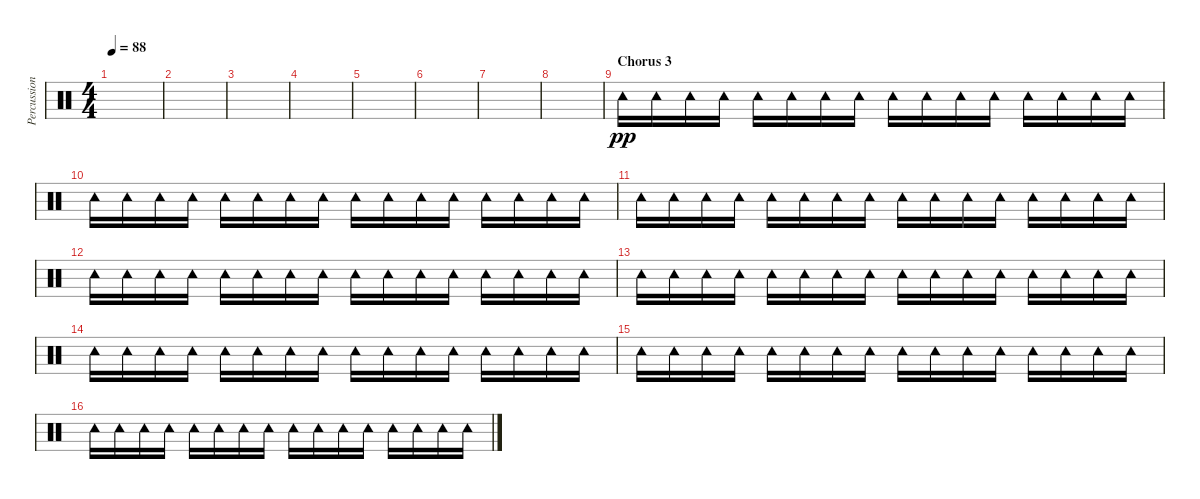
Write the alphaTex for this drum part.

\track ("Percussion" "Percussion") {instrument percussion}
\staff {score}
\articulation defaults
\ts (4 4)
\tempo 88
\clef neutral
\ks c
|
|
|
|
|
|
|
|
\section ("" "Chorus 3")
"Tambourine (hit)".16{dy pp} "Tambourine (hit)".16 "Tambourine (hit)".16 "Tambourine (hit)".16 "Tambourine (hit)".16 "Tambourine (hit)".16 "Tambourine (hit)".16 "Tambourine (hit)".16 "Tambourine (hit)".16 "Tambourine (hit)".16 "Tambourine (hit)".16 "Tambourine (hit)".16 "Tambourine (hit)".16 "Tambourine (hit)".16 "Tambourine (hit)".16 "Tambourine (hit)".16 |
"Tambourine (hit)".16 "Tambourine (hit)".16 "Tambourine (hit)".16 "Tambourine (hit)".16 "Tambourine (hit)".16 "Tambourine (hit)".16 "Tambourine (hit)".16 "Tambourine (hit)".16 "Tambourine (hit)".16 "Tambourine (hit)".16 "Tambourine (hit)".16 "Tambourine (hit)".16 "Tambourine (hit)".16 "Tambourine (hit)".16 "Tambourine (hit)".16 "Tambourine (hit)".16 |
"Tambourine (hit)".16 "Tambourine (hit)".16 "Tambourine (hit)".16 "Tambourine (hit)".16 "Tambourine (hit)".16 "Tambourine (hit)".16 "Tambourine (hit)".16 "Tambourine (hit)".16 "Tambourine (hit)".16 "Tambourine (hit)".16 "Tambourine (hit)".16 "Tambourine (hit)".16 "Tambourine (hit)".16 "Tambourine (hit)".16 "Tambourine (hit)".16 "Tambourine (hit)".16 |
"Tambourine (hit)".16 "Tambourine (hit)".16 "Tambourine (hit)".16 "Tambourine (hit)".16 "Tambourine (hit)".16 "Tambourine (hit)".16 "Tambourine (hit)".16 "Tambourine (hit)".16 "Tambourine (hit)".16 "Tambourine (hit)".16 "Tambourine (hit)".16 "Tambourine (hit)".16 "Tambourine (hit)".16 "Tambourine (hit)".16 "Tambourine (hit)".16 "Tambourine (hit)".16 |
"Tambourine (hit)".16 "Tambourine (hit)".16 "Tambourine (hit)".16 "Tambourine (hit)".16 "Tambourine (hit)".16 "Tambourine (hit)".16 "Tambourine (hit)".16 "Tambourine (hit)".16 "Tambourine (hit)".16 "Tambourine (hit)".16 "Tambourine (hit)".16 "Tambourine (hit)".16 "Tambourine (hit)".16 "Tambourine (hit)".16 "Tambourine (hit)".16 "Tambourine (hit)".16 |
"Tambourine (hit)".16 "Tambourine (hit)".16 "Tambourine (hit)".16 "Tambourine (hit)".16 "Tambourine (hit)".16 "Tambourine (hit)".16 "Tambourine (hit)".16 "Tambourine (hit)".16 "Tambourine (hit)".16 "Tambourine (hit)".16 "Tambourine (hit)".16 "Tambourine (hit)".16 "Tambourine (hit)".16 "Tambourine (hit)".16 "Tambourine (hit)".16 "Tambourine (hit)".16 |
"Tambourine (hit)".16 "Tambourine (hit)".16 "Tambourine (hit)".16 "Tambourine (hit)".16 "Tambourine (hit)".16 "Tambourine (hit)".16 "Tambourine (hit)".16 "Tambourine (hit)".16 "Tambourine (hit)".16 "Tambourine (hit)".16 "Tambourine (hit)".16 "Tambourine (hit)".16 "Tambourine (hit)".16 "Tambourine (hit)".16 "Tambourine (hit)".16 "Tambourine (hit)".16 |
"Tambourine (hit)".16 "Tambourine (hit)".16 "Tambourine (hit)".16 "Tambourine (hit)".16 "Tambourine (hit)".16 "Tambourine (hit)".16 "Tambourine (hit)".16 "Tambourine (hit)".16 "Tambourine (hit)".16 "Tambourine (hit)".16 "Tambourine (hit)".16 "Tambourine (hit)".16 "Tambourine (hit)".16 "Tambourine (hit)".16 "Tambourine (hit)".16 "Tambourine (hit)".16
